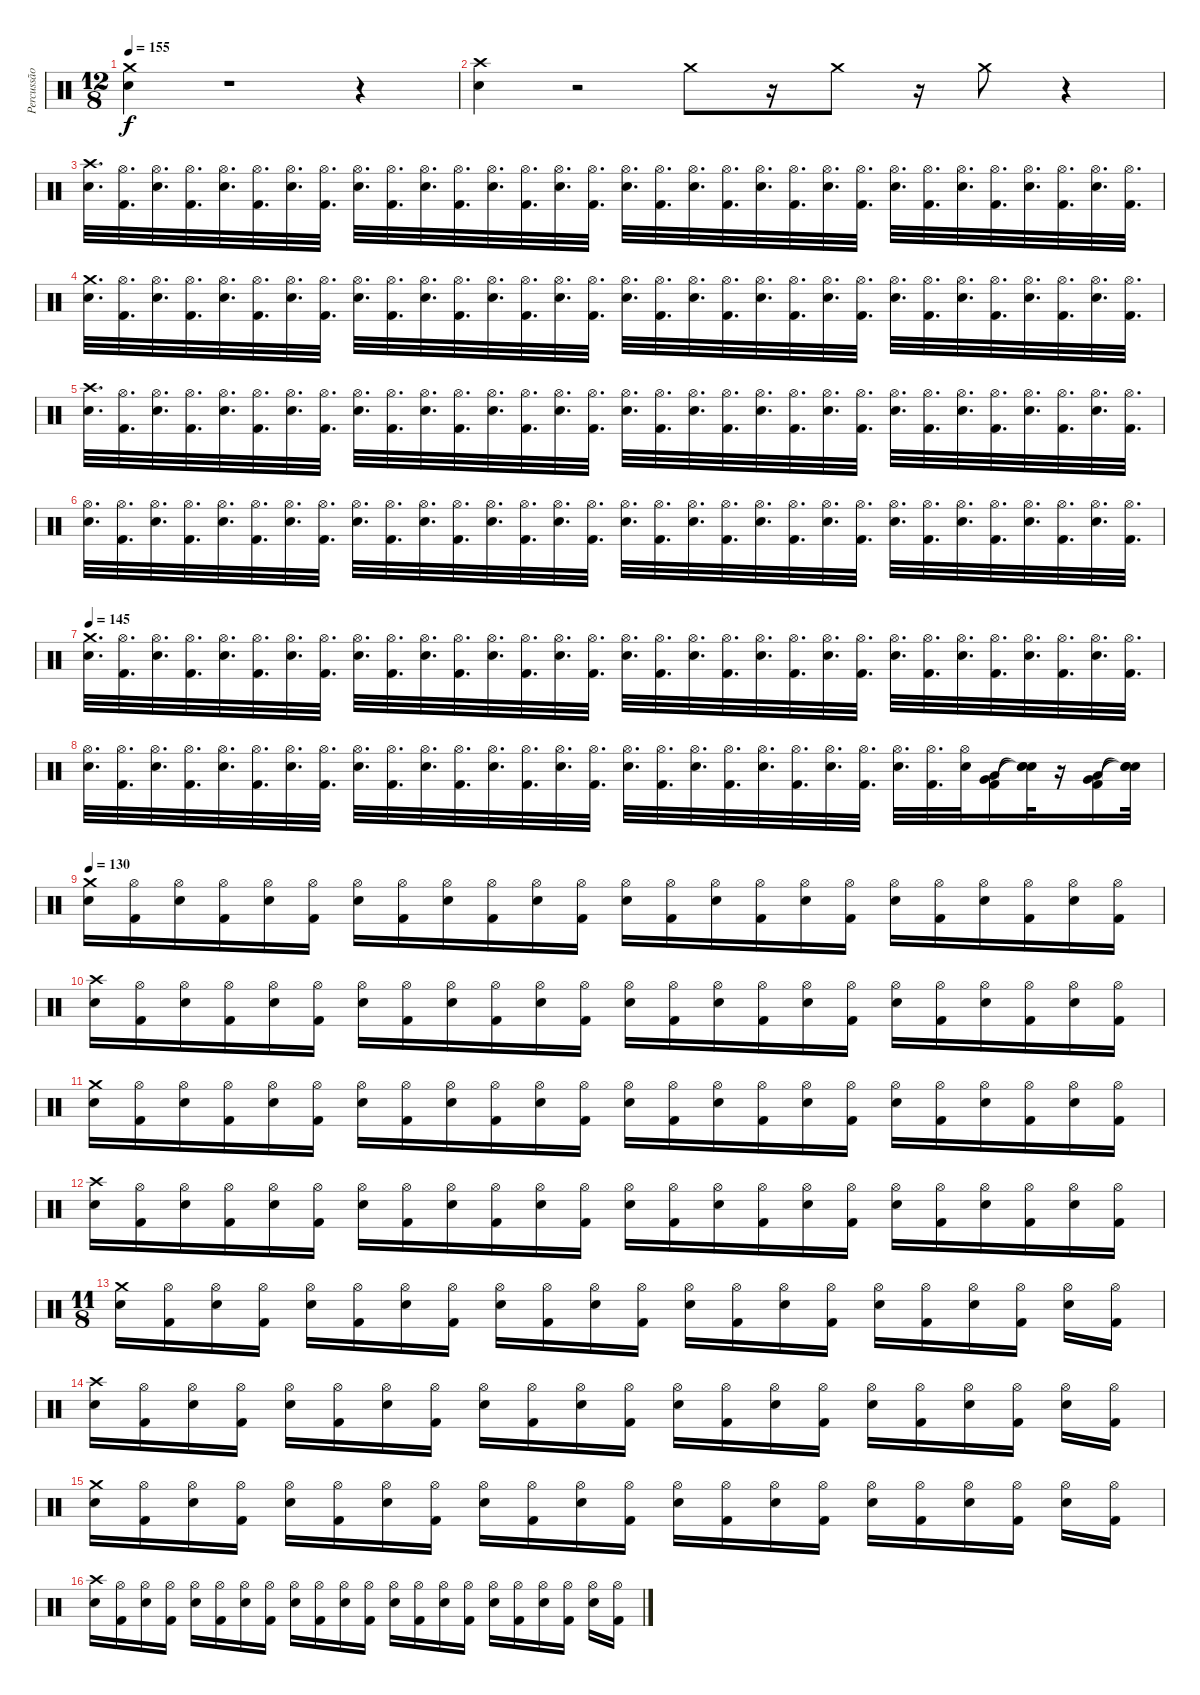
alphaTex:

\track ("Percussão" "Percussão") {instrument percussion}
\staff {score}
\articulation defaults
\ts (12 8)
\tempo 155
\clef neutral
\ks c
("Crash medium (hit)" "Electric Snare (hit)").4{dy f} r.1 r.4 |
("Crash high (hit)" "Electric Snare (hit)").4 r.2 "Crash medium (hit)".8 r.16 "Crash medium (hit)".8 r.16 "Crash medium (hit)".8 r.4 |
("Crash high (hit)" "Electric Snare (hit)").32{d} ("Hi-Hat (open)" "Kick (hit) 2").32{d} ("Hi-Hat (open)" "Electric Snare (hit)").32{d} ("Hi-Hat (open)" "Kick (hit) 2").32{d} ("Hi-Hat (open)" "Electric Snare (hit)").32{d} ("Hi-Hat (open)" "Kick (hit) 2").32{d} ("Hi-Hat (open)" "Electric Snare (hit)").32{d} ("Hi-Hat (open)" "Kick (hit) 2").32{d} ("Hi-Hat (open)" "Electric Snare (hit)").32{d} ("Hi-Hat (open)" "Kick (hit) 2").32{d} ("Hi-Hat (open)" "Electric Snare (hit)").32{d} ("Hi-Hat (open)" "Kick (hit) 2").32{d} ("Hi-Hat (open)" "Electric Snare (hit)").32{d} ("Hi-Hat (open)" "Kick (hit) 2").32{d} ("Hi-Hat (open)" "Electric Snare (hit)").32{d} ("Hi-Hat (open)" "Kick (hit) 2").32{d} ("Hi-Hat (open)" "Electric Snare (hit)").32{d} ("Hi-Hat (open)" "Kick (hit) 2").32{d} ("Hi-Hat (open)" "Electric Snare (hit)").32{d} ("Hi-Hat (open)" "Kick (hit) 2").32{d} ("Hi-Hat (open)" "Electric Snare (hit)").32{d} ("Hi-Hat (open)" "Kick (hit) 2").32{d} ("Hi-Hat (open)" "Electric Snare (hit)").32{d} ("Hi-Hat (open)" "Kick (hit) 2").32{d} ("Hi-Hat (open)" "Electric Snare (hit)").32{d} ("Hi-Hat (open)" "Kick (hit) 2").32{d} ("Hi-Hat (open)" "Electric Snare (hit)").32{d} ("Hi-Hat (open)" "Kick (hit) 2").32{d} ("Hi-Hat (open)" "Electric Snare (hit)").32{d} ("Hi-Hat (open)" "Kick (hit) 2").32{d} ("Hi-Hat (open)" "Electric Snare (hit)").32{d} ("Hi-Hat (open)" "Kick (hit) 2").32{d} |
("Crash medium (hit)" "Electric Snare (hit)").32{d} ("Hi-Hat (open)" "Kick (hit) 2").32{d} ("Hi-Hat (open)" "Electric Snare (hit)").32{d} ("Hi-Hat (open)" "Kick (hit) 2").32{d} ("Hi-Hat (open)" "Electric Snare (hit)").32{d} ("Hi-Hat (open)" "Kick (hit) 2").32{d} ("Hi-Hat (open)" "Electric Snare (hit)").32{d} ("Hi-Hat (open)" "Kick (hit) 2").32{d} ("Hi-Hat (open)" "Electric Snare (hit)").32{d} ("Hi-Hat (open)" "Kick (hit) 2").32{d} ("Hi-Hat (open)" "Electric Snare (hit)").32{d} ("Hi-Hat (open)" "Kick (hit) 2").32{d} ("Hi-Hat (open)" "Electric Snare (hit)").32{d} ("Hi-Hat (open)" "Kick (hit) 2").32{d} ("Hi-Hat (open)" "Electric Snare (hit)").32{d} ("Hi-Hat (open)" "Kick (hit) 2").32{d} ("Hi-Hat (open)" "Electric Snare (hit)").32{d} ("Hi-Hat (open)" "Kick (hit) 2").32{d} ("Hi-Hat (open)" "Electric Snare (hit)").32{d} ("Hi-Hat (open)" "Kick (hit) 2").32{d} ("Hi-Hat (open)" "Electric Snare (hit)").32{d} ("Hi-Hat (open)" "Kick (hit) 2").32{d} ("Hi-Hat (open)" "Electric Snare (hit)").32{d} ("Hi-Hat (open)" "Kick (hit) 2").32{d} ("Hi-Hat (open)" "Electric Snare (hit)").32{d} ("Hi-Hat (open)" "Kick (hit) 2").32{d} ("Hi-Hat (open)" "Electric Snare (hit)").32{d} ("Hi-Hat (open)" "Kick (hit) 2").32{d} ("Hi-Hat (open)" "Electric Snare (hit)").32{d} ("Hi-Hat (open)" "Kick (hit) 2").32{d} ("Hi-Hat (open)" "Electric Snare (hit)").32{d} ("Hi-Hat (open)" "Kick (hit) 2").32{d} |
("Crash high (hit)" "Electric Snare (hit)").32{d} ("Hi-Hat (open)" "Kick (hit) 2").32{d} ("Hi-Hat (open)" "Electric Snare (hit)").32{d} ("Hi-Hat (open)" "Kick (hit) 2").32{d} ("Hi-Hat (open)" "Electric Snare (hit)").32{d} ("Hi-Hat (open)" "Kick (hit) 2").32{d} ("Hi-Hat (open)" "Electric Snare (hit)").32{d} ("Hi-Hat (open)" "Kick (hit) 2").32{d} ("Hi-Hat (open)" "Electric Snare (hit)").32{d} ("Hi-Hat (open)" "Kick (hit) 2").32{d} ("Hi-Hat (open)" "Electric Snare (hit)").32{d} ("Hi-Hat (open)" "Kick (hit) 2").32{d} ("Hi-Hat (open)" "Electric Snare (hit)").32{d} ("Hi-Hat (open)" "Kick (hit) 2").32{d} ("Hi-Hat (open)" "Electric Snare (hit)").32{d} ("Hi-Hat (open)" "Kick (hit) 2").32{d} ("Hi-Hat (open)" "Electric Snare (hit)").32{d} ("Hi-Hat (open)" "Kick (hit) 2").32{d} ("Hi-Hat (open)" "Electric Snare (hit)").32{d} ("Hi-Hat (open)" "Kick (hit) 2").32{d} ("Hi-Hat (open)" "Electric Snare (hit)").32{d} ("Hi-Hat (open)" "Kick (hit) 2").32{d} ("Hi-Hat (open)" "Electric Snare (hit)").32{d} ("Hi-Hat (open)" "Kick (hit) 2").32{d} ("Hi-Hat (open)" "Electric Snare (hit)").32{d} ("Hi-Hat (open)" "Kick (hit) 2").32{d} ("Hi-Hat (open)" "Electric Snare (hit)").32{d} ("Hi-Hat (open)" "Kick (hit) 2").32{d} ("Hi-Hat (open)" "Electric Snare (hit)").32{d} ("Hi-Hat (open)" "Kick (hit) 2").32{d} ("Hi-Hat (open)" "Electric Snare (hit)").32{d} ("Hi-Hat (open)" "Kick (hit) 2").32{d} |
("Hi-Hat (open)" "Electric Snare (hit)").32{d} ("Hi-Hat (open)" "Kick (hit) 2").32{d} ("Hi-Hat (open)" "Electric Snare (hit)").32{d} ("Hi-Hat (open)" "Kick (hit) 2").32{d} ("Hi-Hat (open)" "Electric Snare (hit)").32{d} ("Hi-Hat (open)" "Kick (hit) 2").32{d} ("Hi-Hat (open)" "Electric Snare (hit)").32{d} ("Hi-Hat (open)" "Kick (hit) 2").32{d} ("Hi-Hat (open)" "Electric Snare (hit)").32{d} ("Hi-Hat (open)" "Kick (hit) 2").32{d} ("Hi-Hat (open)" "Electric Snare (hit)").32{d} ("Hi-Hat (open)" "Kick (hit) 2").32{d} ("Hi-Hat (open)" "Electric Snare (hit)").32{d} ("Hi-Hat (open)" "Kick (hit) 2").32{d} ("Hi-Hat (open)" "Electric Snare (hit)").32{d} ("Hi-Hat (open)" "Kick (hit) 2").32{d} ("Hi-Hat (open)" "Electric Snare (hit)").32{d} ("Hi-Hat (open)" "Kick (hit) 2").32{d} ("Hi-Hat (open)" "Electric Snare (hit)").32{d} ("Hi-Hat (open)" "Kick (hit) 2").32{d} ("Hi-Hat (open)" "Electric Snare (hit)").32{d} ("Hi-Hat (open)" "Kick (hit) 2").32{d} ("Hi-Hat (open)" "Electric Snare (hit)").32{d} ("Hi-Hat (open)" "Kick (hit) 2").32{d} ("Hi-Hat (open)" "Electric Snare (hit)").32{d} ("Hi-Hat (open)" "Kick (hit) 2").32{d} ("Hi-Hat (open)" "Electric Snare (hit)").32{d} ("Hi-Hat (open)" "Kick (hit) 2").32{d} ("Hi-Hat (open)" "Electric Snare (hit)").32{d} ("Hi-Hat (open)" "Kick (hit) 2").32{d} ("Hi-Hat (open)" "Electric Snare (hit)").32{d} ("Hi-Hat (open)" "Kick (hit) 2").32{d} |
\tempo 145
("Crash medium (hit)" "Electric Snare (hit)").32{d} ("Hi-Hat (open)" "Kick (hit) 2").32{d} ("Hi-Hat (open)" "Electric Snare (hit)").32{d} ("Hi-Hat (open)" "Kick (hit) 2").32{d} ("Hi-Hat (open)" "Electric Snare (hit)").32{d} ("Hi-Hat (open)" "Kick (hit) 2").32{d} ("Hi-Hat (open)" "Electric Snare (hit)").32{d} ("Hi-Hat (open)" "Kick (hit) 2").32{d} ("Hi-Hat (open)" "Electric Snare (hit)").32{d} ("Hi-Hat (open)" "Kick (hit) 2").32{d} ("Hi-Hat (open)" "Electric Snare (hit)").32{d} ("Hi-Hat (open)" "Kick (hit) 2").32{d} ("Hi-Hat (open)" "Electric Snare (hit)").32{d} ("Hi-Hat (open)" "Kick (hit) 2").32{d} ("Hi-Hat (open)" "Electric Snare (hit)").32{d} ("Hi-Hat (open)" "Kick (hit) 2").32{d} ("Hi-Hat (open)" "Electric Snare (hit)").32{d} ("Hi-Hat (open)" "Kick (hit) 2").32{d} ("Hi-Hat (open)" "Electric Snare (hit)").32{d} ("Hi-Hat (open)" "Kick (hit) 2").32{d} ("Hi-Hat (open)" "Electric Snare (hit)").32{d} ("Hi-Hat (open)" "Kick (hit) 2").32{d} ("Hi-Hat (open)" "Electric Snare (hit)").32{d} ("Hi-Hat (open)" "Kick (hit) 2").32{d} ("Hi-Hat (open)" "Electric Snare (hit)").32{d} ("Hi-Hat (open)" "Kick (hit) 2").32{d} ("Hi-Hat (open)" "Electric Snare (hit)").32{d} ("Hi-Hat (open)" "Kick (hit) 2").32{d} ("Hi-Hat (open)" "Electric Snare (hit)").32{d} ("Hi-Hat (open)" "Kick (hit) 2").32{d} ("Hi-Hat (open)" "Electric Snare (hit)").32{d} ("Hi-Hat (open)" "Kick (hit) 2").32{d} |
("Hi-Hat (open)" "Electric Snare (hit)").32{d} ("Hi-Hat (open)" "Kick (hit) 2").32{d} ("Hi-Hat (open)" "Electric Snare (hit)").32{d} ("Hi-Hat (open)" "Kick (hit) 2").32{d} ("Hi-Hat (open)" "Electric Snare (hit)").32{d} ("Hi-Hat (open)" "Kick (hit) 2").32{d} ("Hi-Hat (open)" "Electric Snare (hit)").32{d} ("Hi-Hat (open)" "Kick (hit) 2").32{d} ("Hi-Hat (open)" "Electric Snare (hit)").32{d} ("Hi-Hat (open)" "Kick (hit) 2").32{d} ("Hi-Hat (open)" "Electric Snare (hit)").32{d} ("Hi-Hat (open)" "Kick (hit) 2").32{d} ("Hi-Hat (open)" "Electric Snare (hit)").32{d} ("Hi-Hat (open)" "Kick (hit) 2").32{d} ("Hi-Hat (open)" "Electric Snare (hit)").32{d} ("Hi-Hat (open)" "Kick (hit) 2").32{d} ("Hi-Hat (open)" "Electric Snare (hit)").32{d} ("Hi-Hat (open)" "Kick (hit) 2").32{d} ("Hi-Hat (open)" "Electric Snare (hit)").32{d} ("Hi-Hat (open)" "Kick (hit) 2").32{d} ("Hi-Hat (open)" "Electric Snare (hit)").32{d} ("Hi-Hat (open)" "Kick (hit) 2").32{d} ("Hi-Hat (open)" "Electric Snare (hit)").32{d} ("Hi-Hat (open)" "Kick (hit) 2").32{d} ("Hi-Hat (open)" "Electric Snare (hit)").32{d} ("Hi-Hat (open)" "Kick (hit) 2").32{d} ("Hi-Hat (open)" "Electric Snare (hit)").32 ("Low Floor Tom (hit)" "Very Low Tom (hit)" "Kick (hit) 2").16 ("Snare (hit)"{t} "Snare (hit)"{t} "Snare (hit)"{t}).32 r.16 ("Low Floor Tom (hit)" "Very Low Tom (hit)" "Kick (hit) 2").16 ("Snare (hit)"{t} "Snare (hit)"{t} "Snare (hit)"{t}).32 |
\tempo 130
("Crash medium (hit)" "Electric Snare (hit)").16 ("Hi-Hat (open)" "Kick (hit) 2").16 ("Hi-Hat (open)" "Electric Snare (hit)").16 ("Hi-Hat (open)" "Kick (hit) 2").16 ("Hi-Hat (open)" "Electric Snare (hit)").16 ("Hi-Hat (open)" "Kick (hit) 2").16 ("Hi-Hat (open)" "Electric Snare (hit)").16 ("Hi-Hat (open)" "Kick (hit) 2").16 ("Hi-Hat (open)" "Electric Snare (hit)").16 ("Hi-Hat (open)" "Kick (hit) 2").16 ("Hi-Hat (open)" "Electric Snare (hit)").16 ("Hi-Hat (open)" "Kick (hit) 2").16 ("Hi-Hat (open)" "Electric Snare (hit)").16 ("Hi-Hat (open)" "Kick (hit) 2").16 ("Hi-Hat (open)" "Electric Snare (hit)").16 ("Hi-Hat (open)" "Kick (hit) 2").16 ("Hi-Hat (open)" "Electric Snare (hit)").16 ("Hi-Hat (open)" "Kick (hit) 2").16 ("Hi-Hat (open)" "Electric Snare (hit)").16 ("Hi-Hat (open)" "Kick (hit) 2").16 ("Hi-Hat (open)" "Electric Snare (hit)").16 ("Hi-Hat (open)" "Kick (hit) 2").16 ("Hi-Hat (open)" "Electric Snare (hit)").16 ("Hi-Hat (open)" "Kick (hit) 2").16 |
("Crash high (hit)" "Electric Snare (hit)").16 ("Hi-Hat (open)" "Kick (hit) 2").16 ("Hi-Hat (open)" "Electric Snare (hit)").16 ("Hi-Hat (open)" "Kick (hit) 2").16 ("Hi-Hat (open)" "Electric Snare (hit)").16 ("Hi-Hat (open)" "Kick (hit) 2").16 ("Hi-Hat (open)" "Electric Snare (hit)").16 ("Hi-Hat (open)" "Kick (hit) 2").16 ("Hi-Hat (open)" "Electric Snare (hit)").16 ("Hi-Hat (open)" "Kick (hit) 2").16 ("Hi-Hat (open)" "Electric Snare (hit)").16 ("Hi-Hat (open)" "Kick (hit) 2").16 ("Hi-Hat (open)" "Electric Snare (hit)").16 ("Hi-Hat (open)" "Kick (hit) 2").16 ("Hi-Hat (open)" "Electric Snare (hit)").16 ("Hi-Hat (open)" "Kick (hit) 2").16 ("Hi-Hat (open)" "Electric Snare (hit)").16 ("Hi-Hat (open)" "Kick (hit) 2").16 ("Hi-Hat (open)" "Electric Snare (hit)").16 ("Hi-Hat (open)" "Kick (hit) 2").16 ("Hi-Hat (open)" "Electric Snare (hit)").16 ("Hi-Hat (open)" "Kick (hit) 2").16 ("Hi-Hat (open)" "Electric Snare (hit)").16 ("Hi-Hat (open)" "Kick (hit) 2").16 |
("Crash medium (hit)" "Electric Snare (hit)").16 ("Hi-Hat (open)" "Kick (hit) 2").16 ("Hi-Hat (open)" "Electric Snare (hit)").16 ("Hi-Hat (open)" "Kick (hit) 2").16 ("Hi-Hat (open)" "Electric Snare (hit)").16 ("Hi-Hat (open)" "Kick (hit) 2").16 ("Hi-Hat (open)" "Electric Snare (hit)").16 ("Hi-Hat (open)" "Kick (hit) 2").16 ("Hi-Hat (open)" "Electric Snare (hit)").16 ("Hi-Hat (open)" "Kick (hit) 2").16 ("Hi-Hat (open)" "Electric Snare (hit)").16 ("Hi-Hat (open)" "Kick (hit) 2").16 ("Hi-Hat (open)" "Electric Snare (hit)").16 ("Hi-Hat (open)" "Kick (hit) 2").16 ("Hi-Hat (open)" "Electric Snare (hit)").16 ("Hi-Hat (open)" "Kick (hit) 2").16 ("Hi-Hat (open)" "Electric Snare (hit)").16 ("Hi-Hat (open)" "Kick (hit) 2").16 ("Hi-Hat (open)" "Electric Snare (hit)").16 ("Hi-Hat (open)" "Kick (hit) 2").16 ("Hi-Hat (open)" "Electric Snare (hit)").16 ("Hi-Hat (open)" "Kick (hit) 2").16 ("Hi-Hat (open)" "Electric Snare (hit)").16 ("Hi-Hat (open)" "Kick (hit) 2").16 |
("Crash high (hit)" "Electric Snare (hit)").16 ("Hi-Hat (open)" "Kick (hit) 2").16 ("Hi-Hat (open)" "Electric Snare (hit)").16 ("Hi-Hat (open)" "Kick (hit) 2").16 ("Hi-Hat (open)" "Electric Snare (hit)").16 ("Hi-Hat (open)" "Kick (hit) 2").16 ("Hi-Hat (open)" "Electric Snare (hit)").16 ("Hi-Hat (open)" "Kick (hit) 2").16 ("Hi-Hat (open)" "Electric Snare (hit)").16 ("Hi-Hat (open)" "Kick (hit) 2").16 ("Hi-Hat (open)" "Electric Snare (hit)").16 ("Hi-Hat (open)" "Kick (hit) 2").16 ("Hi-Hat (open)" "Electric Snare (hit)").16 ("Hi-Hat (open)" "Kick (hit) 2").16 ("Hi-Hat (open)" "Electric Snare (hit)").16 ("Hi-Hat (open)" "Kick (hit) 2").16 ("Hi-Hat (open)" "Electric Snare (hit)").16 ("Hi-Hat (open)" "Kick (hit) 2").16 ("Hi-Hat (open)" "Electric Snare (hit)").16 ("Hi-Hat (open)" "Kick (hit) 2").16 ("Hi-Hat (open)" "Electric Snare (hit)").16 ("Hi-Hat (open)" "Kick (hit) 2").16 ("Hi-Hat (open)" "Electric Snare (hit)").16 ("Hi-Hat (open)" "Kick (hit) 2").16 |
\ts (11 8)
("Crash medium (hit)" "Electric Snare (hit)").16 ("Hi-Hat (open)" "Kick (hit) 2").16 ("Hi-Hat (open)" "Electric Snare (hit)").16 ("Hi-Hat (open)" "Kick (hit) 2").16 ("Hi-Hat (open)" "Electric Snare (hit)").16 ("Hi-Hat (open)" "Kick (hit) 2").16 ("Hi-Hat (open)" "Electric Snare (hit)").16 ("Hi-Hat (open)" "Kick (hit) 2").16 ("Hi-Hat (open)" "Electric Snare (hit)").16 ("Hi-Hat (open)" "Kick (hit) 2").16 ("Hi-Hat (open)" "Electric Snare (hit)").16 ("Hi-Hat (open)" "Kick (hit) 2").16 ("Hi-Hat (open)" "Electric Snare (hit)").16 ("Hi-Hat (open)" "Kick (hit) 2").16 ("Hi-Hat (open)" "Electric Snare (hit)").16 ("Hi-Hat (open)" "Kick (hit) 2").16 ("Hi-Hat (open)" "Electric Snare (hit)").16 ("Hi-Hat (open)" "Kick (hit) 2").16 ("Hi-Hat (open)" "Electric Snare (hit)").16 ("Hi-Hat (open)" "Kick (hit) 2").16 ("Hi-Hat (open)" "Electric Snare (hit)").16 ("Hi-Hat (open)" "Kick (hit) 2").16 |
("Crash high (hit)" "Electric Snare (hit)").16 ("Hi-Hat (open)" "Kick (hit) 2").16 ("Hi-Hat (open)" "Electric Snare (hit)").16 ("Hi-Hat (open)" "Kick (hit) 2").16 ("Hi-Hat (open)" "Electric Snare (hit)").16 ("Hi-Hat (open)" "Kick (hit) 2").16 ("Hi-Hat (open)" "Electric Snare (hit)").16 ("Hi-Hat (open)" "Kick (hit) 2").16 ("Hi-Hat (open)" "Electric Snare (hit)").16 ("Hi-Hat (open)" "Kick (hit) 2").16 ("Hi-Hat (open)" "Electric Snare (hit)").16 ("Hi-Hat (open)" "Kick (hit) 2").16 ("Hi-Hat (open)" "Electric Snare (hit)").16 ("Hi-Hat (open)" "Kick (hit) 2").16 ("Hi-Hat (open)" "Electric Snare (hit)").16 ("Hi-Hat (open)" "Kick (hit) 2").16 ("Hi-Hat (open)" "Electric Snare (hit)").16 ("Hi-Hat (open)" "Kick (hit) 2").16 ("Hi-Hat (open)" "Electric Snare (hit)").16 ("Hi-Hat (open)" "Kick (hit) 2").16 ("Hi-Hat (open)" "Electric Snare (hit)").16 ("Hi-Hat (open)" "Kick (hit) 2").16 |
("Crash medium (hit)" "Electric Snare (hit)").16 ("Hi-Hat (open)" "Kick (hit) 2").16 ("Hi-Hat (open)" "Electric Snare (hit)").16 ("Hi-Hat (open)" "Kick (hit) 2").16 ("Hi-Hat (open)" "Electric Snare (hit)").16 ("Hi-Hat (open)" "Kick (hit) 2").16 ("Hi-Hat (open)" "Electric Snare (hit)").16 ("Hi-Hat (open)" "Kick (hit) 2").16 ("Hi-Hat (open)" "Electric Snare (hit)").16 ("Hi-Hat (open)" "Kick (hit) 2").16 ("Hi-Hat (open)" "Electric Snare (hit)").16 ("Hi-Hat (open)" "Kick (hit) 2").16 ("Hi-Hat (open)" "Electric Snare (hit)").16 ("Hi-Hat (open)" "Kick (hit) 2").16 ("Hi-Hat (open)" "Electric Snare (hit)").16 ("Hi-Hat (open)" "Kick (hit) 2").16 ("Hi-Hat (open)" "Electric Snare (hit)").16 ("Hi-Hat (open)" "Kick (hit) 2").16 ("Hi-Hat (open)" "Electric Snare (hit)").16 ("Hi-Hat (open)" "Kick (hit) 2").16 ("Hi-Hat (open)" "Electric Snare (hit)").16 ("Hi-Hat (open)" "Kick (hit) 2").16 |
("Crash high (hit)" "Electric Snare (hit)").16 ("Hi-Hat (open)" "Kick (hit) 2").16 ("Hi-Hat (open)" "Electric Snare (hit)").16 ("Hi-Hat (open)" "Kick (hit) 2").16 ("Hi-Hat (open)" "Electric Snare (hit)").16 ("Hi-Hat (open)" "Kick (hit) 2").16 ("Hi-Hat (open)" "Electric Snare (hit)").16 ("Hi-Hat (open)" "Kick (hit) 2").16 ("Hi-Hat (open)" "Electric Snare (hit)").16 ("Hi-Hat (open)" "Kick (hit) 2").16 ("Hi-Hat (open)" "Electric Snare (hit)").16 ("Hi-Hat (open)" "Kick (hit) 2").16 ("Hi-Hat (open)" "Electric Snare (hit)").16 ("Hi-Hat (open)" "Kick (hit) 2").16 ("Hi-Hat (open)" "Electric Snare (hit)").16 ("Hi-Hat (open)" "Kick (hit) 2").16 ("Hi-Hat (open)" "Electric Snare (hit)").16 ("Hi-Hat (open)" "Kick (hit) 2").16 ("Hi-Hat (open)" "Electric Snare (hit)").16 ("Hi-Hat (open)" "Kick (hit) 2").16 ("Hi-Hat (open)" "Electric Snare (hit)").16 ("Hi-Hat (open)" "Kick (hit) 2").16
